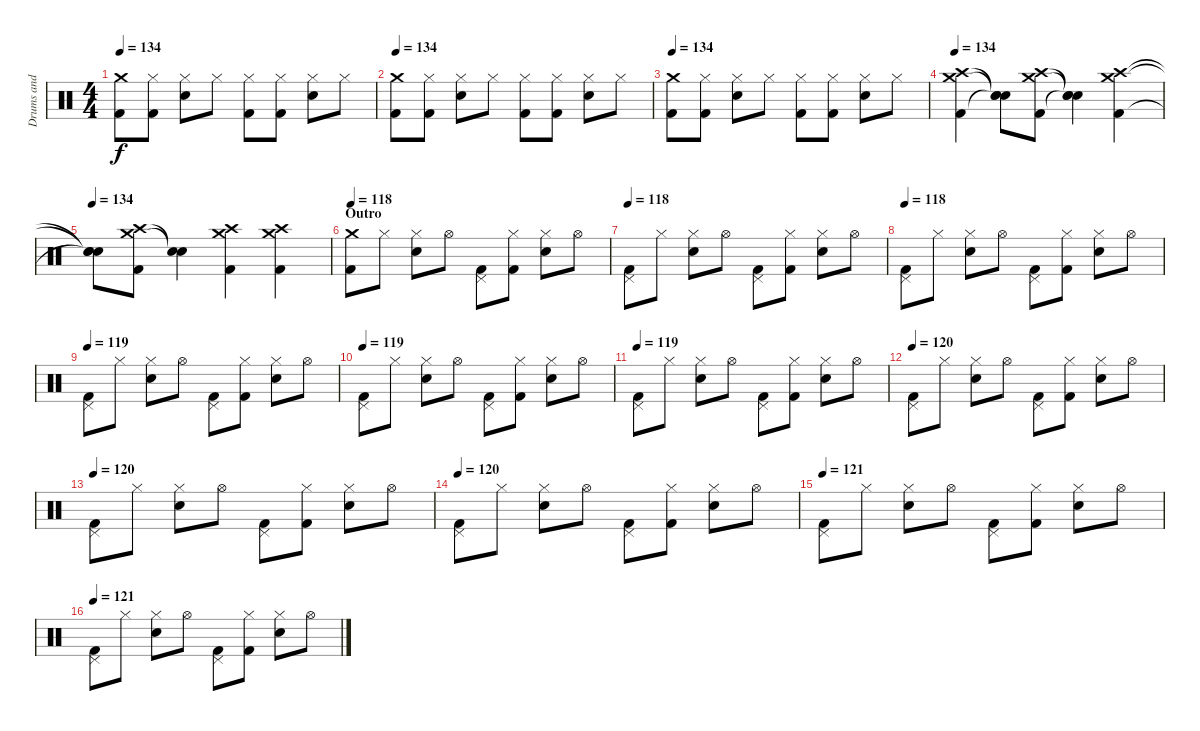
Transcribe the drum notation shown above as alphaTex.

\track ("Drums and Percussion" "Drums and ") {instrument percussion}
\staff {score}
\articulation defaults
\ts (4 4)
\tempo 134
\clef neutral
\ks c
("Crash medium (hit)" "Kick (hit) 2").8{dy f} ("Hi-Hat (closed)" "Kick (hit) 2").8 ("Hi-Hat (closed)" "Electric Snare (hit)").8 "Hi-Hat (closed)".8 ("Hi-Hat (closed)" "Kick (hit) 2").8 ("Hi-Hat (closed)" "Kick (hit) 2").8 ("Hi-Hat (closed)" "Electric Snare (hit)").8 "Hi-Hat (closed)".8 |
\tempo 134
("Crash medium (hit)" "Kick (hit) 2").8 ("Hi-Hat (closed)" "Kick (hit) 2").8 ("Hi-Hat (closed)" "Electric Snare (hit)").8 "Hi-Hat (closed)".8 ("Hi-Hat (closed)" "Kick (hit) 2").8 ("Hi-Hat (closed)" "Kick (hit) 2").8 ("Hi-Hat (closed)" "Electric Snare (hit)").8 "Hi-Hat (closed)".8 |
\tempo 134
("Crash medium (hit)" "Kick (hit) 2").8 ("Hi-Hat (closed)" "Kick (hit) 2").8 ("Hi-Hat (closed)" "Electric Snare (hit)").8 "Hi-Hat (closed)".8 ("Hi-Hat (closed)" "Kick (hit) 2").8 ("Hi-Hat (closed)" "Kick (hit) 2").8 ("Hi-Hat (closed)" "Electric Snare (hit)").8 "Hi-Hat (closed)".8 |
\tempo 134
("Crash medium (hit)" "Crash high (hit)" "Kick (hit) 2").4 ("Snare (hit)"{t} "Snare (hit)"{t} "Snare (hit)"{t}).8 ("Crash medium (hit)" "Crash high (hit)" "Kick (hit) 2").8 ("Snare (hit)"{t} "Snare (hit)"{t} "Snare (hit)"{t}).4 ("Crash medium (hit)" "Crash high (hit)" "Kick (hit) 2").4 |
\tempo 134
("Snare (hit)"{t} "Snare (hit)"{t} "Snare (hit)"{t}).8 ("Crash medium (hit)" "Crash high (hit)" "Kick (hit) 2").8 ("Snare (hit)"{t} "Snare (hit)"{t}).4 ("Crash medium (hit)" "Crash high (hit)" "Kick (hit) 2").4 ("Crash medium (hit)" "Crash high (hit)" "Kick (hit) 2").4 |
\section ("" "Outro")
\tempo 118
("Crash medium (hit)" "Kick (hit) 2").8 "Hi-Hat (closed)".8 ("Hi-Hat (closed)" "Electric Snare (hit)").8 "Hi-Hat (open)".8 ("Pedal Hi-Hat (hit)" "Kick (hit) 2").8 ("Hi-Hat (closed)" "Kick (hit) 2").8 ("Hi-Hat (closed)" "Electric Snare (hit)").8 "Hi-Hat (open)".8 |
\tempo 118
("Pedal Hi-Hat (hit)" "Kick (hit) 2").8 "Hi-Hat (closed)".8 ("Hi-Hat (closed)" "Electric Snare (hit)").8 "Hi-Hat (open)".8 ("Pedal Hi-Hat (hit)" "Kick (hit) 2").8 ("Hi-Hat (closed)" "Kick (hit) 2").8 ("Hi-Hat (closed)" "Electric Snare (hit)").8 "Hi-Hat (open)".8 |
\tempo 118
("Pedal Hi-Hat (hit)" "Kick (hit) 2").8 "Hi-Hat (closed)".8 ("Hi-Hat (closed)" "Electric Snare (hit)").8 "Hi-Hat (open)".8 ("Pedal Hi-Hat (hit)" "Kick (hit) 2").8 ("Hi-Hat (closed)" "Kick (hit) 2").8 ("Hi-Hat (closed)" "Electric Snare (hit)").8 "Hi-Hat (open)".8 |
\tempo 119
("Pedal Hi-Hat (hit)" "Kick (hit) 2").8 "Hi-Hat (closed)".8 ("Hi-Hat (closed)" "Electric Snare (hit)").8 "Hi-Hat (open)".8 ("Pedal Hi-Hat (hit)" "Kick (hit) 2").8 ("Hi-Hat (closed)" "Kick (hit) 2").8 ("Hi-Hat (closed)" "Electric Snare (hit)").8 "Hi-Hat (open)".8 |
\tempo 119
("Pedal Hi-Hat (hit)" "Kick (hit) 2").8 "Hi-Hat (closed)".8 ("Hi-Hat (closed)" "Electric Snare (hit)").8 "Hi-Hat (open)".8 ("Pedal Hi-Hat (hit)" "Kick (hit) 2").8 ("Hi-Hat (closed)" "Kick (hit) 2").8 ("Hi-Hat (closed)" "Electric Snare (hit)").8 "Hi-Hat (open)".8 |
\tempo 119
("Pedal Hi-Hat (hit)" "Kick (hit) 2").8 "Hi-Hat (closed)".8 ("Hi-Hat (closed)" "Electric Snare (hit)").8 "Hi-Hat (open)".8 ("Pedal Hi-Hat (hit)" "Kick (hit) 2").8 ("Hi-Hat (closed)" "Kick (hit) 2").8 ("Hi-Hat (closed)" "Electric Snare (hit)").8 "Hi-Hat (open)".8 |
\tempo 120
("Pedal Hi-Hat (hit)" "Kick (hit) 2").8 "Hi-Hat (closed)".8 ("Hi-Hat (closed)" "Electric Snare (hit)").8 "Hi-Hat (open)".8 ("Pedal Hi-Hat (hit)" "Kick (hit) 2").8 ("Hi-Hat (closed)" "Kick (hit) 2").8 ("Hi-Hat (closed)" "Electric Snare (hit)").8 "Hi-Hat (open)".8 |
\tempo 120
("Pedal Hi-Hat (hit)" "Kick (hit) 2").8 "Hi-Hat (closed)".8 ("Hi-Hat (closed)" "Electric Snare (hit)").8 "Hi-Hat (open)".8 ("Pedal Hi-Hat (hit)" "Kick (hit) 2").8 ("Hi-Hat (closed)" "Kick (hit) 2").8 ("Hi-Hat (closed)" "Electric Snare (hit)").8 "Hi-Hat (open)".8 |
\tempo 120
("Pedal Hi-Hat (hit)" "Kick (hit) 2").8 "Hi-Hat (closed)".8 ("Hi-Hat (closed)" "Electric Snare (hit)").8 "Hi-Hat (open)".8 ("Pedal Hi-Hat (hit)" "Kick (hit) 2").8 ("Hi-Hat (closed)" "Kick (hit) 2").8 ("Hi-Hat (closed)" "Electric Snare (hit)").8 "Hi-Hat (open)".8 |
\tempo 121
("Pedal Hi-Hat (hit)" "Kick (hit) 2").8 "Hi-Hat (closed)".8 ("Hi-Hat (closed)" "Electric Snare (hit)").8 "Hi-Hat (open)".8 ("Pedal Hi-Hat (hit)" "Kick (hit) 2").8 ("Hi-Hat (closed)" "Kick (hit) 2").8 ("Hi-Hat (closed)" "Electric Snare (hit)").8 "Hi-Hat (open)".8 |
\tempo 121
("Pedal Hi-Hat (hit)" "Kick (hit) 2").8 "Hi-Hat (closed)".8 ("Hi-Hat (closed)" "Electric Snare (hit)").8 "Hi-Hat (open)".8 ("Pedal Hi-Hat (hit)" "Kick (hit) 2").8 ("Hi-Hat (closed)" "Kick (hit) 2").8 ("Hi-Hat (closed)" "Electric Snare (hit)").8 "Hi-Hat (open)".8
